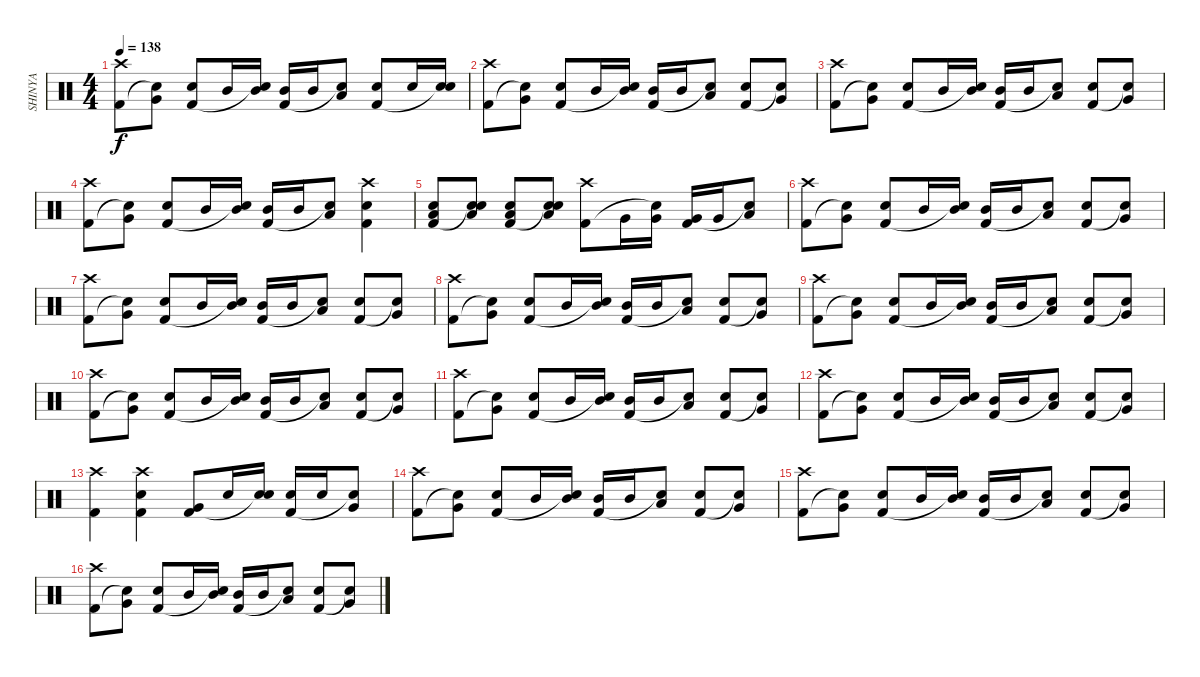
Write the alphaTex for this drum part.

\track ("SHINYA" "SHINYA") {instrument percussion}
\staff {score}
\articulation defaults
\ts (4 4)
\tempo 138
\clef neutral
\ks c
("Crash high (hit)" "Kick (hit) 2").8{dy f} ("Very Low Tom (hit)" "Snare (hit)"{t}).8 ("Electric Snare (hit)" "Kick (hit) 2").8 "Mid Tom (hit)".16 ("Mid Tom (hit)" "Snare (hit)"{t}).16 ("Mid Tom (hit)" "Kick (hit) 2").16 "Mid Tom (hit)".16 ("Low Tom (hit)" "Snare (hit)"{t}).8 ("Electric Snare (hit)" "Kick (hit) 2").8 "Electric Snare (hit)".16 ("Electric Snare (hit)" "Snare (hit)"{t}).16 |
("Crash high (hit)" "Kick (hit) 2").8 ("Very Low Tom (hit)" "Snare (hit)"{t}).8 ("Electric Snare (hit)" "Kick (hit) 2").8 "Mid Tom (hit)".16 ("Mid Tom (hit)" "Snare (hit)"{t}).16 ("Mid Tom (hit)" "Kick (hit) 2").16 "Mid Tom (hit)".16 ("Low Tom (hit)" "Snare (hit)"{t}).8 ("Electric Snare (hit)" "Kick (hit) 2").8 ("Very Low Tom (hit)" "Snare (hit)"{t}).8 |
("Crash high (hit)" "Kick (hit) 2").8 ("Very Low Tom (hit)" "Snare (hit)"{t}).8 ("Electric Snare (hit)" "Kick (hit) 2").8 "Mid Tom (hit)".16 ("Mid Tom (hit)" "Snare (hit)"{t}).16 ("Mid Tom (hit)" "Kick (hit) 2").16 "Mid Tom (hit)".16 ("Low Tom (hit)" "Snare (hit)"{t}).8 ("Electric Snare (hit)" "Kick (hit) 2").8 ("Very Low Tom (hit)" "Snare (hit)"{t}).8 |
("Crash high (hit)" "Kick (hit) 2").8 ("Very Low Tom (hit)" "Snare (hit)"{t}).8 ("Electric Snare (hit)" "Kick (hit) 2").8 "Mid Tom (hit)".16 ("Mid Tom (hit)" "Snare (hit)"{t}).16 ("Mid Tom (hit)" "Kick (hit) 2").16 "Mid Tom (hit)".16 ("Low Tom (hit)" "Snare (hit)"{t}).8 ("Crash high (hit)" "Electric Snare (hit)" "Kick (hit) 2").4 |
("Electric Snare (hit)" "Low Floor Tom (hit)" "Kick (hit) 2").8 ("Electric Snare (hit)" "Low Floor Tom (hit)" "Snare (hit)"{t}).8 ("Electric Snare (hit)" "Low Floor Tom (hit)" "Kick (hit) 2").8 ("Electric Snare (hit)" "Low Floor Tom (hit)" "Snare (hit)"{t}).8 ("Crash high (hit)" "Kick (hit) 2").8 "Very Low Tom (hit)".16 ("Very Low Tom (hit)" "Snare (hit)"{t}).16 ("Very Low Tom (hit)" "Kick (hit) 2").16 "Very Low Tom (hit)".16 ("Low Floor Tom (hit)" "Snare (hit)"{t}).8 |
("Crash high (hit)" "Kick (hit) 2").8 ("Very Low Tom (hit)" "Snare (hit)"{t}).8 ("Electric Snare (hit)" "Kick (hit) 2").8 "Mid Tom (hit)".16 ("Mid Tom (hit)" "Snare (hit)"{t}).16 ("Mid Tom (hit)" "Kick (hit) 2").16 "Mid Tom (hit)".16 ("Low Tom (hit)" "Snare (hit)"{t}).8 ("Electric Snare (hit)" "Kick (hit) 2").8 ("Very Low Tom (hit)" "Snare (hit)"{t}).8 |
("Crash high (hit)" "Kick (hit) 2").8 ("Very Low Tom (hit)" "Snare (hit)"{t}).8 ("Electric Snare (hit)" "Kick (hit) 2").8 "Mid Tom (hit)".16 ("Mid Tom (hit)" "Snare (hit)"{t}).16 ("Mid Tom (hit)" "Kick (hit) 2").16 "Mid Tom (hit)".16 ("Low Tom (hit)" "Snare (hit)"{t}).8 ("Electric Snare (hit)" "Kick (hit) 2").8 ("Very Low Tom (hit)" "Snare (hit)"{t}).8 |
("Crash high (hit)" "Kick (hit) 2").8 ("Very Low Tom (hit)" "Snare (hit)"{t}).8 ("Electric Snare (hit)" "Kick (hit) 2").8 "Mid Tom (hit)".16 ("Mid Tom (hit)" "Snare (hit)"{t}).16 ("Mid Tom (hit)" "Kick (hit) 2").16 "Mid Tom (hit)".16 ("Low Tom (hit)" "Snare (hit)"{t}).8 ("Electric Snare (hit)" "Kick (hit) 2").8 ("Very Low Tom (hit)" "Snare (hit)"{t}).8 |
("Crash high (hit)" "Kick (hit) 2").8 ("Very Low Tom (hit)" "Snare (hit)"{t}).8 ("Electric Snare (hit)" "Kick (hit) 2").8 "Mid Tom (hit)".16 ("Mid Tom (hit)" "Snare (hit)"{t}).16 ("Mid Tom (hit)" "Kick (hit) 2").16 "Mid Tom (hit)".16 ("Low Tom (hit)" "Snare (hit)"{t}).8 ("Electric Snare (hit)" "Kick (hit) 2").8 ("Very Low Tom (hit)" "Snare (hit)"{t}).8 |
("Crash high (hit)" "Kick (hit) 2").8 ("Very Low Tom (hit)" "Snare (hit)"{t}).8 ("Electric Snare (hit)" "Kick (hit) 2").8 "Mid Tom (hit)".16 ("Mid Tom (hit)" "Snare (hit)"{t}).16 ("Mid Tom (hit)" "Kick (hit) 2").16 "Mid Tom (hit)".16 ("Low Tom (hit)" "Snare (hit)"{t}).8 ("Electric Snare (hit)" "Kick (hit) 2").8 ("Very Low Tom (hit)" "Snare (hit)"{t}).8 |
("Crash high (hit)" "Kick (hit) 2").8 ("Very Low Tom (hit)" "Snare (hit)"{t}).8 ("Electric Snare (hit)" "Kick (hit) 2").8 "Mid Tom (hit)".16 ("Mid Tom (hit)" "Snare (hit)"{t}).16 ("Mid Tom (hit)" "Kick (hit) 2").16 "Mid Tom (hit)".16 ("Low Tom (hit)" "Snare (hit)"{t}).8 ("Electric Snare (hit)" "Kick (hit) 2").8 ("Very Low Tom (hit)" "Snare (hit)"{t}).8 |
("Crash high (hit)" "Kick (hit) 2").8 ("Very Low Tom (hit)" "Snare (hit)"{t}).8 ("Electric Snare (hit)" "Kick (hit) 2").8 "Mid Tom (hit)".16 ("Mid Tom (hit)" "Snare (hit)"{t}).16 ("Mid Tom (hit)" "Kick (hit) 2").16 "Mid Tom (hit)".16 ("Low Tom (hit)" "Snare (hit)"{t}).8 ("Electric Snare (hit)" "Kick (hit) 2").8 ("Very Low Tom (hit)" "Snare (hit)"{t}).8 |
("Crash high (hit)" "Kick (hit) 2").4 ("Crash high (hit)" "Electric Snare (hit)" "Kick (hit) 2").4 ("Very Low Tom (hit)" "Kick (hit) 2").8 "Electric Snare (hit)".16 ("Electric Snare (hit)" "Snare (hit)"{t}).16 ("Electric Snare (hit)" "Kick (hit) 2").16 "Electric Snare (hit)".16 ("Very Low Tom (hit)" "Snare (hit)"{t}).8 |
("Crash high (hit)" "Kick (hit) 2").8 ("Very Low Tom (hit)" "Snare (hit)"{t}).8 ("Electric Snare (hit)" "Kick (hit) 2").8 "Mid Tom (hit)".16 ("Mid Tom (hit)" "Snare (hit)"{t}).16 ("Mid Tom (hit)" "Kick (hit) 2").16 "Mid Tom (hit)".16 ("Low Tom (hit)" "Snare (hit)"{t}).8 ("Electric Snare (hit)" "Kick (hit) 2").8 ("Very Low Tom (hit)" "Snare (hit)"{t}).8 |
("Crash high (hit)" "Kick (hit) 2").8 ("Very Low Tom (hit)" "Snare (hit)"{t}).8 ("Electric Snare (hit)" "Kick (hit) 2").8 "Mid Tom (hit)".16 ("Mid Tom (hit)" "Snare (hit)"{t}).16 ("Mid Tom (hit)" "Kick (hit) 2").16 "Mid Tom (hit)".16 ("Low Tom (hit)" "Snare (hit)"{t}).8 ("Electric Snare (hit)" "Kick (hit) 2").8 ("Very Low Tom (hit)" "Snare (hit)"{t}).8 |
("Crash high (hit)" "Kick (hit) 2").8 ("Very Low Tom (hit)" "Snare (hit)"{t}).8 ("Electric Snare (hit)" "Kick (hit) 2").8 "Mid Tom (hit)".16 ("Mid Tom (hit)" "Snare (hit)"{t}).16 ("Mid Tom (hit)" "Kick (hit) 2").16 "Mid Tom (hit)".16 ("Low Tom (hit)" "Snare (hit)"{t}).8 ("Electric Snare (hit)" "Kick (hit) 2").8 ("Very Low Tom (hit)" "Snare (hit)"{t}).8
